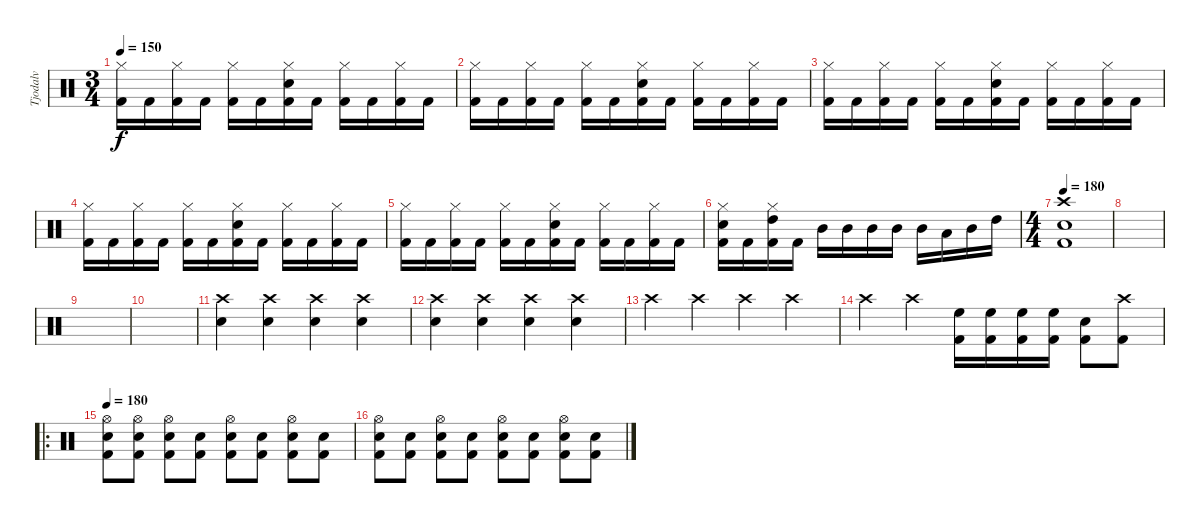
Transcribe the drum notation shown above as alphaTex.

\track ("Tjodalv" "Tjodalv") {instrument percussion}
\staff {score}
\articulation defaults
\ts (3 4)
\tempo 150
\clef neutral
\ks c
("Hi-Hat (closed)" "Kick (hit) 2").16{dy f} "Kick (hit) 2".16 ("Hi-Hat (closed)" "Kick (hit) 2").16 "Kick (hit) 2".16 ("Hi-Hat (closed)" "Kick (hit) 2").16 "Kick (hit) 2".16 ("Hi-Hat (closed)" "Snare (hit) 2" "Kick (hit) 2").16 "Kick (hit) 2".16 ("Hi-Hat (closed)" "Kick (hit) 2").16 "Kick (hit) 2".16 ("Hi-Hat (closed)" "Kick (hit) 2").16 "Kick (hit) 2".16 |
("Hi-Hat (closed)" "Kick (hit) 2").16 "Kick (hit) 2".16 ("Hi-Hat (closed)" "Kick (hit) 2").16 "Kick (hit) 2".16 ("Hi-Hat (closed)" "Kick (hit) 2").16 "Kick (hit) 2".16 ("Hi-Hat (closed)" "Snare (hit) 2" "Kick (hit) 2").16 "Kick (hit) 2".16 ("Hi-Hat (closed)" "Kick (hit) 2").16 "Kick (hit) 2".16 ("Hi-Hat (closed)" "Kick (hit) 2").16 "Kick (hit) 2".16 |
("Hi-Hat (closed)" "Kick (hit) 2").16 "Kick (hit) 2".16 ("Hi-Hat (closed)" "Kick (hit) 2").16 "Kick (hit) 2".16 ("Hi-Hat (closed)" "Kick (hit) 2").16 "Kick (hit) 2".16 ("Hi-Hat (closed)" "Snare (hit) 2" "Kick (hit) 2").16 "Kick (hit) 2".16 ("Hi-Hat (closed)" "Kick (hit) 2").16 "Kick (hit) 2".16 ("Hi-Hat (closed)" "Kick (hit) 2").16 "Kick (hit) 2".16 |
("Hi-Hat (closed)" "Kick (hit) 2").16 "Kick (hit) 2".16 ("Hi-Hat (closed)" "Kick (hit) 2").16 "Kick (hit) 2".16 ("Hi-Hat (closed)" "Kick (hit) 2").16 "Kick (hit) 2".16 ("Hi-Hat (closed)" "Snare (hit) 2" "Kick (hit) 2").16 "Kick (hit) 2".16 ("Hi-Hat (closed)" "Kick (hit) 2").16 "Kick (hit) 2".16 ("Hi-Hat (closed)" "Kick (hit) 2").16 "Kick (hit) 2".16 |
("Hi-Hat (closed)" "Kick (hit) 2").16 "Kick (hit) 2".16 ("Hi-Hat (closed)" "Kick (hit) 2").16 "Kick (hit) 2".16 ("Hi-Hat (closed)" "Kick (hit) 2").16 "Kick (hit) 2".16 ("Hi-Hat (closed)" "Snare (hit) 2" "Kick (hit) 2").16 "Kick (hit) 2".16 ("Hi-Hat (closed)" "Kick (hit) 2").16 "Kick (hit) 2".16 ("Hi-Hat (closed)" "Kick (hit) 2").16 "Kick (hit) 2".16 |
("Hi-Hat (closed)" "Snare (hit) 2" "Kick (hit) 2").16 "Kick (hit) 2".16 ("Hi-Hat (closed)" "High Tom (hit)" "Kick (hit) 2").16 "Kick (hit) 2".16 "Mid Tom (hit)".16 "Mid Tom (hit)".16 "Mid Tom (hit)".16 "Mid Tom (hit)".16 "Mid Tom (hit)".16 "Low Tom (hit)".16 "Mid Tom (hit)".16 "High Tom (hit)".16 |
\ts (4 4)
\tempo 180
("Crash high (hit)" "Snare (hit) 2" "Kick (hit) 2").1 |
|
|
|
("Crash high (hit)" "Snare (hit) 2").4 ("Crash high (hit)" "Snare (hit) 2").4 ("Crash high (hit)" "Snare (hit) 2").4 ("Crash high (hit)" "Snare (hit) 2").4 |
("Crash high (hit)" "Snare (hit) 2").4 ("Crash high (hit)" "Snare (hit) 2").4 ("Crash high (hit)" "Snare (hit) 2").4 ("Crash high (hit)" "Snare (hit) 2").4 |
"Crash high (hit)".4 "Crash high (hit)".4 "Crash high (hit)".4 "Crash high (hit)".4 |
"Crash high (hit)".4 "Crash high (hit)".4 ("High Floor Tom (hit)" "Kick (hit) 2").16 ("High Floor Tom (hit)" "Kick (hit) 2").16 ("High Floor Tom (hit)" "Kick (hit) 2").16 ("High Floor Tom (hit)" "Kick (hit) 2").16 ("Snare (hit) 2" "Kick (hit) 2").8 ("Crash high (hit)" "Kick (hit) 2").8 |
\ro
\tempo 180
("Hi-Hat (open)" "Snare (hit) 2" "Kick (hit) 2").8 ("Hi-Hat (open)" "Snare (hit) 2" "Kick (hit) 2").8 ("Hi-Hat (open)" "Snare (hit) 2" "Kick (hit) 2").8 ("Snare (hit) 2" "Kick (hit) 2").8 ("Hi-Hat (open)" "Snare (hit) 2" "Kick (hit) 2").8 ("Snare (hit) 2" "Kick (hit) 2").8 ("Hi-Hat (open)" "Snare (hit) 2" "Kick (hit) 2").8 ("Snare (hit) 2" "Kick (hit) 2").8 |
("Hi-Hat (open)" "Snare (hit) 2" "Kick (hit) 2").8 ("Snare (hit) 2" "Kick (hit) 2").8 ("Hi-Hat (open)" "Snare (hit) 2" "Kick (hit) 2").8 ("Snare (hit) 2" "Kick (hit) 2").8 ("Hi-Hat (open)" "Snare (hit) 2" "Kick (hit) 2").8 ("Snare (hit) 2" "Kick (hit) 2").8 ("Hi-Hat (open)" "Snare (hit) 2" "Kick (hit) 2").8 ("Snare (hit) 2" "Kick (hit) 2").8
